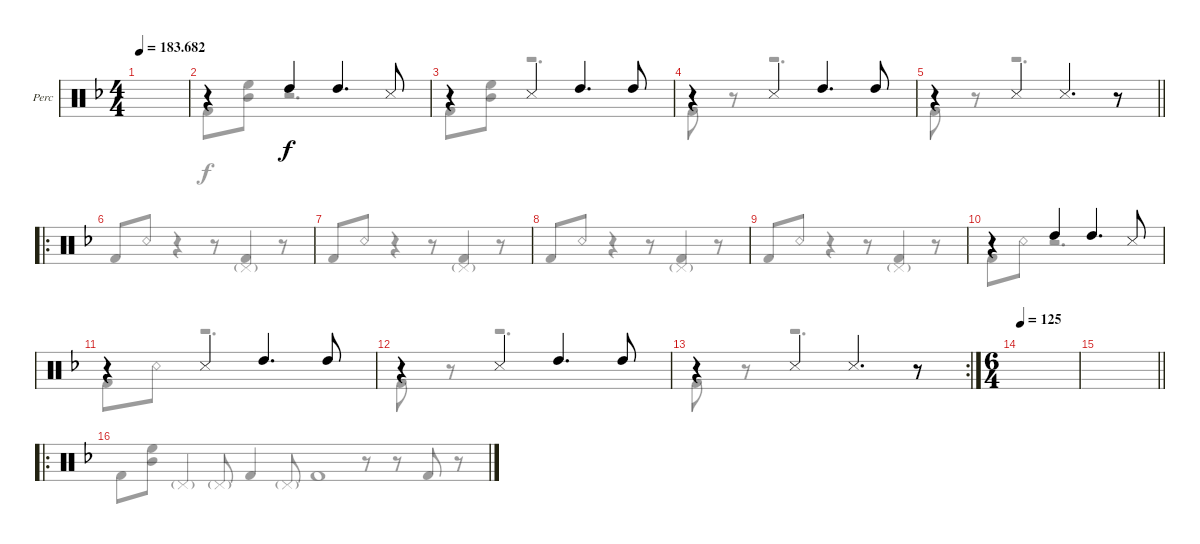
\defaultSystemsLayout 4
\bracketExtendMode groupsimilarinstruments
\firstSystemTrackNameOrientation horizontal
\otherSystemsTrackNameOrientation horizontal
\track ("Body Percussion" "Perc") {instrument percussion}
\staff {score}
\articulation defaults
\voice
\ts (4 4)
\tempo
183.682
\accidentals auto
\clef neutral
\ottava regular
\simile none
\ks dminor
|
r.4{beam Up} "High Tom (hit)"{acc forcenatural}.4{beam Up} "High Tom (hit)"{acc forcenatural}.4{d beam Up} "Snare (side stick) 3"{acc forcenatural}.8{beam Up} |
r.4{beam Up} "Snare (side stick) 3"{acc forcenatural}.4{beam Up} "High Tom (hit)"{acc forcenatural}.4{d beam Up} "High Tom (hit)"{acc forcenatural}.8{beam Up} |
r.4{beam Up} "Snare (side stick) 3"{acc forcenatural}.4{beam Up} "High Tom (hit)"{acc forcenatural}.4{d beam Up} "High Tom (hit)"{acc forcenatural}.8{beam Up} |
\barLineRight lightlight
r.4{beam Up} "Snare (side stick) 3"{acc forcenatural}.4{beam Up} "Snare (side stick) 3"{acc forcenatural}.4{d beam Up} r.8{beam Up} |
\ro
|
|
|
|
r.4{beam Up} "High Tom (hit)"{acc forcenatural}.4{beam Up} "High Tom (hit)"{acc forcenatural}.4{d beam Up} "Snare (side stick) 3"{acc forcenatural}.8{beam Up} |
r.4{beam Up} "Snare (side stick) 3"{acc forcenatural}.4{beam Up} "High Tom (hit)"{acc forcenatural}.4{d beam Up} "High Tom (hit)"{acc forcenatural}.8{beam Up} |
r.4{beam Up} "Snare (side stick) 3"{acc forcenatural}.4{beam Up} "High Tom (hit)"{acc forcenatural}.4{d beam Up} "High Tom (hit)"{acc forcenatural}.8{beam Up} |
\rc 2
r.4{beam Up} "Snare (side stick) 3"{acc forcenatural}.4{beam Up} "Snare (side stick) 3"{acc forcenatural}.4{d beam Up} r.8{beam Up} |
\ts (6 4)
\scale
0.529748
\tempo 125
|
\scale
0.469826
\barLineRight lightlight
|
\ro
\voice
\clef neutral
\ottava regular
\simile none
\ks dminor "Kick (hit) 2"{acc forcenatural}.8{dy f beam Down}
("High Floor Tom (hit)"{acc forcenatural} "Mid Tom (hit)"{acc forcenatural}).8{beam Down} "Pedal Hi-Hat (hit)"{g acc forcenatural}.4{beam Up} "Pedal Hi-Hat (hit)"{g acc forcenatural}.8{beam Up} "Kick (hit) 2"{acc forcenatural}.4{beam Up} "Pedal Hi-Hat (hit)"{g acc forcenatural}.8{beam Up} |
"Kick (hit) 2"{acc forcenatural}.8{beam Down} ("High Floor Tom (hit)"{acc forcenatural} "Mid Tom (hit)"{acc forcenatural}).8{beam Down} r.2{d beam Down} |
"Kick (hit) 2"{acc forcenatural}.8{beam Down} ("High Floor Tom (hit)"{acc forcenatural} "Mid Tom (hit)"{acc forcenatural}).8{beam Down} r.2{d beam Down} |
"Kick (hit) 2"{acc forcenatural}.8{beam Down} r.8{beam Down} r.2{d beam Down} |
\barLineRight lightlight "Kick (hit) 2"{acc forcenatural}.8{beam Down}
r.8{beam Down} r.2{d beam Down} |
"Kick (hit) 2"{acc forcenatural}.8{beam Up} "Snare (rim shot)"{acc forcenatural}.8{beam Up} r.4{beam Up} r.8{beam Up} ("Kick (hit) 2"{acc forcenatural} "Pedal Hi-Hat (hit)"{g acc forcenatural}).4{beam Up} r.8{beam Up} |
"Kick (hit) 2"{acc forcenatural}.8{beam Up} "Snare (rim shot)"{acc forcenatural}.8{beam Up} r.4{beam Up} r.8{beam Up} ("Kick (hit) 2"{acc forcenatural} "Pedal Hi-Hat (hit)"{g acc forcenatural}).4{beam Up} r.8{beam Up} |
"Kick (hit) 2"{acc forcenatural}.8{beam Up} "Snare (rim shot)"{acc forcenatural}.8{beam Up} r.4{beam Up} r.8{beam Up} ("Kick (hit) 2"{acc forcenatural} "Pedal Hi-Hat (hit)"{g acc forcenatural}).4{beam Up} r.8{beam Up} |
"Kick (hit) 2"{acc forcenatural}.8{beam Up} "Snare (rim shot)"{acc forcenatural}.8{beam Up} r.4{beam Up} r.8{beam Up} ("Kick (hit) 2"{acc forcenatural} "Pedal Hi-Hat (hit)"{g acc forcenatural}).4{beam Up} r.8{beam Up} |
"Kick (hit) 2"{acc forcenatural}.8{beam Down} "Snare (rim shot)"{acc forcenatural}.8{beam Down} r.2{d beam Down} |
"Kick (hit) 2"{acc forcenatural}.8{beam Down} "Snare (rim shot)"{acc forcenatural}.8{beam Down} r.2{d beam Down} |
"Kick (hit) 2"{acc forcenatural}.8{beam Down} r.8{beam Down} r.2{d beam Down} |
"Kick (hit) 2"{acc forcenatural}.8{beam Down} r.8{beam Down} r.2{d beam Down} |
|
\barLineRight lightlight
|
"Kick (hit) 2"{acc forcenatural}.1{beam Up} r.8{beam Up} r.8{beam Up} "Kick (hit) 2"{acc forcenatural}.8{beam Up} r.8{beam Up}
